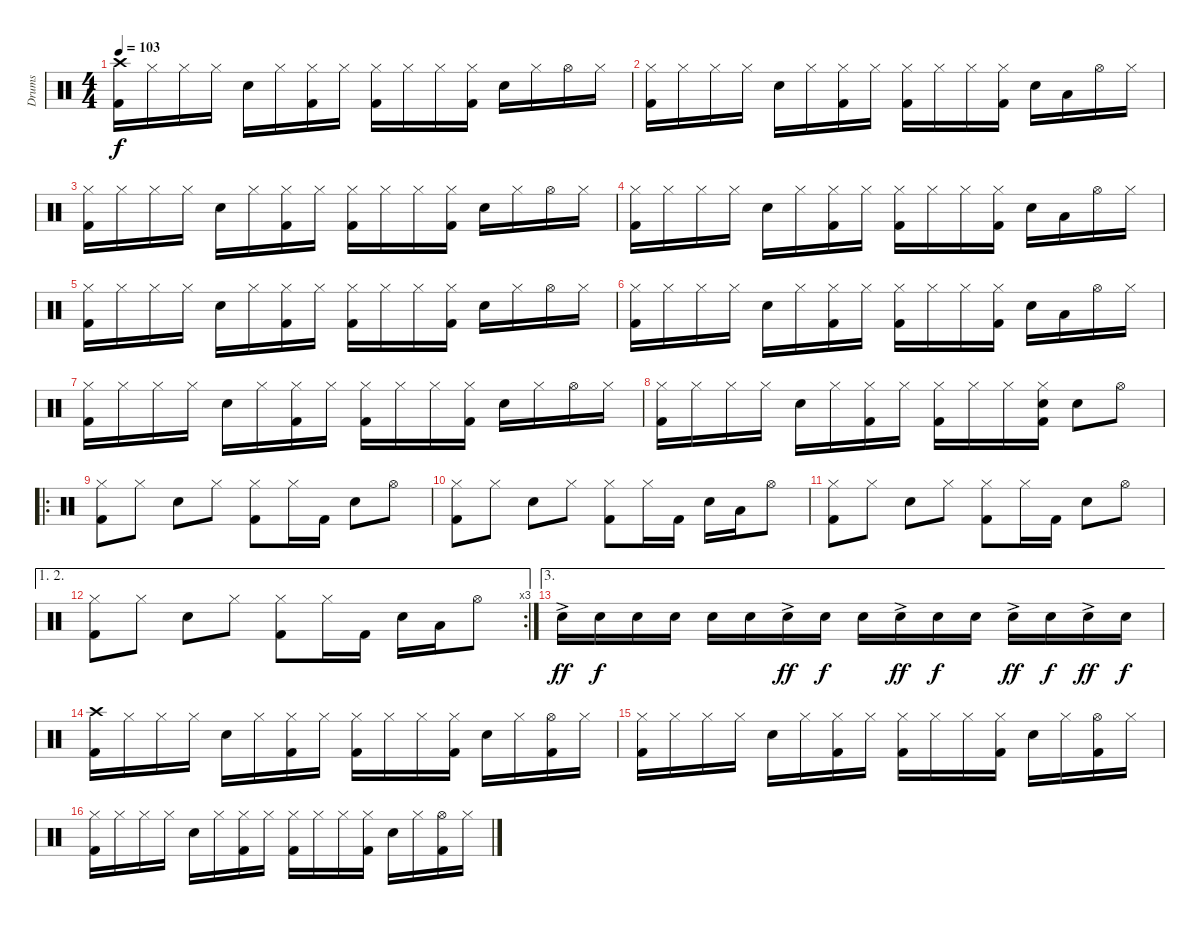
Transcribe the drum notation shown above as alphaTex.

\track ("Drums" "Drums") {instrument percussion}
\staff {score}
\articulation defaults
\ts (4 4)
\tempo 103
\clef neutral
\ks c
("Crash high (hit)" "Kick (hit) 2").16{dy f} "Hi-Hat (closed)".16 "Hi-Hat (closed)".16 "Hi-Hat (closed)".16 "Snare (hit) 2".16 "Hi-Hat (closed)".16 ("Hi-Hat (closed)" "Kick (hit) 2").16 "Hi-Hat (closed)".16 ("Hi-Hat (closed)" "Kick (hit) 2").16 "Hi-Hat (closed)".16 "Hi-Hat (closed)".16 ("Hi-Hat (closed)" "Kick (hit) 2").16 "Snare (hit) 2".16 "Hi-Hat (closed)".16 "Hi-Hat (open)".16 "Hi-Hat (closed)".16 |
("Hi-Hat (closed)" "Kick (hit) 2").16 "Hi-Hat (closed)".16 "Hi-Hat (closed)".16 "Hi-Hat (closed)".16 "Snare (hit) 2".16 "Hi-Hat (closed)".16 ("Hi-Hat (closed)" "Kick (hit) 2").16 "Hi-Hat (closed)".16 ("Hi-Hat (closed)" "Kick (hit) 2").16 "Hi-Hat (closed)".16 "Hi-Hat (closed)".16 ("Hi-Hat (closed)" "Kick (hit) 2").16 "Snare (hit) 2".16 "Low Floor Tom (hit)".16 "Hi-Hat (open)".16 "Hi-Hat (closed)".16 |
("Hi-Hat (closed)" "Kick (hit) 2").16 "Hi-Hat (closed)".16 "Hi-Hat (closed)".16 "Hi-Hat (closed)".16 "Snare (hit) 2".16 "Hi-Hat (closed)".16 ("Hi-Hat (closed)" "Kick (hit) 2").16 "Hi-Hat (closed)".16 ("Hi-Hat (closed)" "Kick (hit) 2").16 "Hi-Hat (closed)".16 "Hi-Hat (closed)".16 ("Hi-Hat (closed)" "Kick (hit) 2").16 "Snare (hit) 2".16 "Hi-Hat (closed)".16 "Hi-Hat (open)".16 "Hi-Hat (closed)".16 |
("Hi-Hat (closed)" "Kick (hit) 2").16 "Hi-Hat (closed)".16 "Hi-Hat (closed)".16 "Hi-Hat (closed)".16 "Snare (hit) 2".16 "Hi-Hat (closed)".16 ("Hi-Hat (closed)" "Kick (hit) 2").16 "Hi-Hat (closed)".16 ("Hi-Hat (closed)" "Kick (hit) 2").16 "Hi-Hat (closed)".16 "Hi-Hat (closed)".16 ("Hi-Hat (closed)" "Kick (hit) 2").16 "Snare (hit) 2".16 "Low Floor Tom (hit)".16 "Hi-Hat (open)".16 "Hi-Hat (closed)".16 |
("Hi-Hat (closed)" "Kick (hit) 2").16 "Hi-Hat (closed)".16 "Hi-Hat (closed)".16 "Hi-Hat (closed)".16 "Snare (hit) 2".16 "Hi-Hat (closed)".16 ("Hi-Hat (closed)" "Kick (hit) 2").16 "Hi-Hat (closed)".16 ("Hi-Hat (closed)" "Kick (hit) 2").16 "Hi-Hat (closed)".16 "Hi-Hat (closed)".16 ("Hi-Hat (closed)" "Kick (hit) 2").16 "Snare (hit) 2".16 "Hi-Hat (closed)".16 "Hi-Hat (open)".16 "Hi-Hat (closed)".16 |
("Hi-Hat (closed)" "Kick (hit) 2").16 "Hi-Hat (closed)".16 "Hi-Hat (closed)".16 "Hi-Hat (closed)".16 "Snare (hit) 2".16 "Hi-Hat (closed)".16 ("Hi-Hat (closed)" "Kick (hit) 2").16 "Hi-Hat (closed)".16 ("Hi-Hat (closed)" "Kick (hit) 2").16 "Hi-Hat (closed)".16 "Hi-Hat (closed)".16 ("Hi-Hat (closed)" "Kick (hit) 2").16 "Snare (hit) 2".16 "Low Floor Tom (hit)".16 "Hi-Hat (open)".16 "Hi-Hat (closed)".16 |
("Hi-Hat (closed)" "Kick (hit) 2").16 "Hi-Hat (closed)".16 "Hi-Hat (closed)".16 "Hi-Hat (closed)".16 "Snare (hit) 2".16 "Hi-Hat (closed)".16 ("Hi-Hat (closed)" "Kick (hit) 2").16 "Hi-Hat (closed)".16 ("Hi-Hat (closed)" "Kick (hit) 2").16 "Hi-Hat (closed)".16 "Hi-Hat (closed)".16 ("Hi-Hat (closed)" "Kick (hit) 2").16 "Snare (hit) 2".16 "Hi-Hat (closed)".16 "Hi-Hat (open)".16 "Hi-Hat (closed)".16 |
("Hi-Hat (closed)" "Kick (hit) 2").16 "Hi-Hat (closed)".16 "Hi-Hat (closed)".16 "Hi-Hat (closed)".16 "Snare (hit) 2".16 "Hi-Hat (closed)".16 ("Hi-Hat (closed)" "Kick (hit) 2").16 "Hi-Hat (closed)".16 ("Hi-Hat (closed)" "Kick (hit) 2").16 "Hi-Hat (closed)".16 "Hi-Hat (closed)".16 ("Hi-Hat (closed)" "Snare (hit) 2" "Kick (hit) 2").16 "Snare (hit) 2".8 "Hi-Hat (open)".8 |
\ro
("Hi-Hat (closed)" "Kick (hit) 2").8 "Hi-Hat (closed)".8 "Snare (hit) 2".8 "Hi-Hat (closed)".8 ("Hi-Hat (closed)" "Kick (hit) 2").8 "Hi-Hat (closed)".16 "Kick (hit) 2".16 "Snare (hit) 2".8 "Hi-Hat (open)".8 |
("Hi-Hat (closed)" "Kick (hit) 2").8 "Hi-Hat (closed)".8 "Snare (hit) 2".8 "Hi-Hat (closed)".8 ("Hi-Hat (closed)" "Kick (hit) 2").8 "Hi-Hat (closed)".16 "Kick (hit) 2".16 "Snare (hit) 2".16 "Low Floor Tom (hit)".16 "Hi-Hat (open)".8 |
("Hi-Hat (closed)" "Kick (hit) 2").8 "Hi-Hat (closed)".8 "Snare (hit) 2".8 "Hi-Hat (closed)".8 ("Hi-Hat (closed)" "Kick (hit) 2").8 "Hi-Hat (closed)".16 "Kick (hit) 2".16 "Snare (hit) 2".8 "Hi-Hat (open)".8 |
\ae (1 2)
\rc 3
("Hi-Hat (closed)" "Kick (hit) 2").8 "Hi-Hat (closed)".8 "Snare (hit) 2".8 "Hi-Hat (closed)".8 ("Hi-Hat (closed)" "Kick (hit) 2").8 "Hi-Hat (closed)".16 "Kick (hit) 2".16 "Snare (hit) 2".16 "Low Floor Tom (hit)".16 "Hi-Hat (open)".8 |
\ae 3 "Snare (hit) 2"{ac}.16{dy ff} "Snare (hit) 2".16{dy f} "Snare (hit) 2".16 "Snare (hit) 2".16 "Snare (hit) 2".16 "Snare (hit) 2".16 "Snare (hit) 2"{ac}.16{dy ff} "Snare (hit) 2".16{dy f} "Snare (hit) 2".16 "Snare (hit) 2"{ac}.16{dy ff} "Snare (hit) 2".16{dy f} "Snare (hit) 2".16 "Snare (hit) 2"{ac}.16{dy ff} "Snare (hit) 2".16{dy f} "Snare (hit) 2"{ac}.16{dy ff} "Snare (hit) 2".16{dy f}
|
("Crash high (hit)" "Kick (hit) 2").16 "Hi-Hat (closed)".16 "Hi-Hat (closed)".16 "Hi-Hat (closed)".16 "Snare (hit) 2".16 "Hi-Hat (closed)".16 ("Hi-Hat (closed)" "Kick (hit) 2").16 "Hi-Hat (closed)".16 ("Hi-Hat (closed)" "Kick (hit) 2").16 "Hi-Hat (closed)".16 "Hi-Hat (closed)".16 ("Hi-Hat (closed)" "Kick (hit) 2").16 "Snare (hit) 2".16 "Hi-Hat (closed)".16 ("Hi-Hat (open)" "Kick (hit) 2").16 "Hi-Hat (closed)".16 |
("Hi-Hat (closed)" "Kick (hit) 2").16 "Hi-Hat (closed)".16 "Hi-Hat (closed)".16 "Hi-Hat (closed)".16 "Snare (hit) 2".16 "Hi-Hat (closed)".16 ("Hi-Hat (closed)" "Kick (hit) 2").16 "Hi-Hat (closed)".16 ("Hi-Hat (closed)" "Kick (hit) 2").16 "Hi-Hat (closed)".16 "Hi-Hat (closed)".16 ("Hi-Hat (closed)" "Kick (hit) 2").16 "Snare (hit) 2".16 "Hi-Hat (closed)".16 ("Hi-Hat (open)" "Kick (hit) 2").16 "Hi-Hat (closed)".16 |
("Hi-Hat (closed)" "Kick (hit) 2").16 "Hi-Hat (closed)".16 "Hi-Hat (closed)".16 "Hi-Hat (closed)".16 "Snare (hit) 2".16 "Hi-Hat (closed)".16 ("Hi-Hat (closed)" "Kick (hit) 2").16 "Hi-Hat (closed)".16 ("Hi-Hat (closed)" "Kick (hit) 2").16 "Hi-Hat (closed)".16 "Hi-Hat (closed)".16 ("Hi-Hat (closed)" "Kick (hit) 2").16 "Snare (hit) 2".16 "Hi-Hat (closed)".16 ("Hi-Hat (open)" "Kick (hit) 2").16 "Hi-Hat (closed)".16
